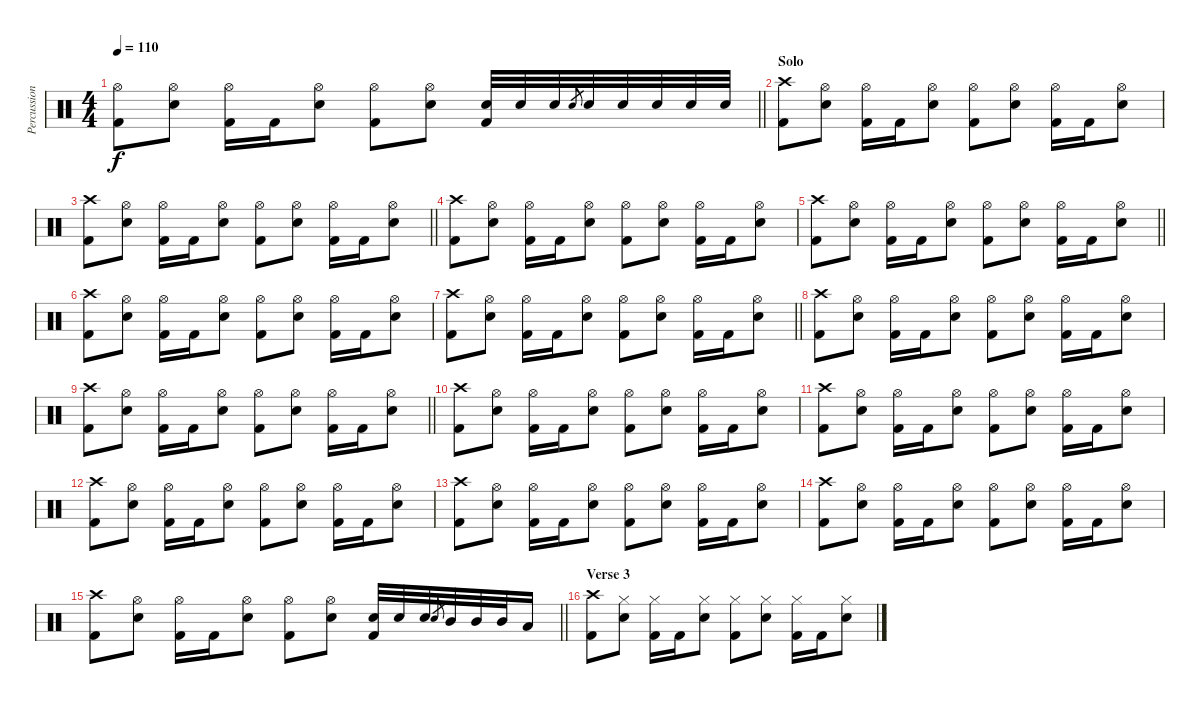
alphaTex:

\track ("Percussion" "Percussion") {instrument percussion}
\staff {score}
\articulation defaults
\ts (4 4)
\tempo 110
\clef neutral
\barLineRight lightlight
\ks c
("Hi-Hat (open)" "Kick (hit) 2").8{dy f} ("Hi-Hat (open)" "Electric Snare (hit)").8 ("Hi-Hat (open)" "Kick (hit) 2").16 "Kick (hit) 2".16 ("Hi-Hat (open)" "Electric Snare (hit)").8 ("Hi-Hat (open)" "Kick (hit) 2").8 ("Hi-Hat (open)" "Electric Snare (hit)").8 ("Electric Snare (hit)" "Kick (hit) 2").32 "Electric Snare (hit)".32 "Electric Snare (hit)".32 "Electric Snare (hit)".8{gr} "Electric Snare (hit)".32 "Electric Snare (hit)".32 "Electric Snare (hit)".32 "Electric Snare (hit)".32 "Electric Snare (hit)".32 |
\section ("" "Solo")
("Crash high (hit)" "Kick (hit) 2").8 ("Hi-Hat (open)" "Electric Snare (hit)").8 ("Hi-Hat (open)" "Kick (hit) 2").16 "Kick (hit) 2".16 ("Hi-Hat (open)" "Electric Snare (hit)").8 ("Hi-Hat (open)" "Kick (hit) 2").8 ("Hi-Hat (open)" "Electric Snare (hit)").8 ("Hi-Hat (open)" "Kick (hit) 2").16 "Kick (hit) 2".16 ("Hi-Hat (open)" "Electric Snare (hit)").8 |
\barLineRight lightlight
("Crash high (hit)" "Kick (hit) 2").8 ("Hi-Hat (open)" "Electric Snare (hit)").8 ("Hi-Hat (open)" "Kick (hit) 2").16 "Kick (hit) 2".16 ("Hi-Hat (open)" "Electric Snare (hit)").8 ("Hi-Hat (open)" "Kick (hit) 2").8 ("Hi-Hat (open)" "Electric Snare (hit)").8 ("Hi-Hat (open)" "Kick (hit) 2").16 "Kick (hit) 2".16 ("Hi-Hat (open)" "Electric Snare (hit)").8 |
("Crash high (hit)" "Kick (hit) 2").8 ("Hi-Hat (open)" "Electric Snare (hit)").8 ("Hi-Hat (open)" "Kick (hit) 2").16 "Kick (hit) 2".16 ("Hi-Hat (open)" "Electric Snare (hit)").8 ("Hi-Hat (open)" "Kick (hit) 2").8 ("Hi-Hat (open)" "Electric Snare (hit)").8 ("Hi-Hat (open)" "Kick (hit) 2").16 "Kick (hit) 2".16 ("Hi-Hat (open)" "Electric Snare (hit)").8 |
\barLineRight lightlight
("Crash high (hit)" "Kick (hit) 2").8 ("Hi-Hat (open)" "Electric Snare (hit)").8 ("Hi-Hat (open)" "Kick (hit) 2").16 "Kick (hit) 2".16 ("Hi-Hat (open)" "Electric Snare (hit)").8 ("Hi-Hat (open)" "Kick (hit) 2").8 ("Hi-Hat (open)" "Electric Snare (hit)").8 ("Hi-Hat (open)" "Kick (hit) 2").16 "Kick (hit) 2".16 ("Hi-Hat (open)" "Electric Snare (hit)").8 |
("Crash high (hit)" "Kick (hit) 2").8 ("Hi-Hat (open)" "Electric Snare (hit)").8 ("Hi-Hat (open)" "Kick (hit) 2").16 "Kick (hit) 2".16 ("Hi-Hat (open)" "Electric Snare (hit)").8 ("Hi-Hat (open)" "Kick (hit) 2").8 ("Hi-Hat (open)" "Electric Snare (hit)").8 ("Hi-Hat (open)" "Kick (hit) 2").16 "Kick (hit) 2".16 ("Hi-Hat (open)" "Electric Snare (hit)").8 |
\barLineRight lightlight
("Crash high (hit)" "Kick (hit) 2").8 ("Hi-Hat (open)" "Electric Snare (hit)").8 ("Hi-Hat (open)" "Kick (hit) 2").16 "Kick (hit) 2".16 ("Hi-Hat (open)" "Electric Snare (hit)").8 ("Hi-Hat (open)" "Kick (hit) 2").8 ("Hi-Hat (open)" "Electric Snare (hit)").8 ("Hi-Hat (open)" "Kick (hit) 2").16 "Kick (hit) 2".16 ("Hi-Hat (open)" "Electric Snare (hit)").8 |
("Crash high (hit)" "Kick (hit) 2").8 ("Hi-Hat (open)" "Electric Snare (hit)").8 ("Hi-Hat (open)" "Kick (hit) 2").16 "Kick (hit) 2".16 ("Hi-Hat (open)" "Electric Snare (hit)").8 ("Hi-Hat (open)" "Kick (hit) 2").8 ("Hi-Hat (open)" "Electric Snare (hit)").8 ("Hi-Hat (open)" "Kick (hit) 2").16 "Kick (hit) 2".16 ("Hi-Hat (open)" "Electric Snare (hit)").8 |
\barLineRight lightlight
("Crash high (hit)" "Kick (hit) 2").8 ("Hi-Hat (open)" "Electric Snare (hit)").8 ("Hi-Hat (open)" "Kick (hit) 2").16 "Kick (hit) 2".16 ("Hi-Hat (open)" "Electric Snare (hit)").8 ("Hi-Hat (open)" "Kick (hit) 2").8 ("Hi-Hat (open)" "Electric Snare (hit)").8 ("Hi-Hat (open)" "Kick (hit) 2").16 "Kick (hit) 2".16 ("Hi-Hat (open)" "Electric Snare (hit)").8 |
("Crash high (hit)" "Kick (hit) 2").8 ("Hi-Hat (open)" "Electric Snare (hit)").8 ("Hi-Hat (open)" "Kick (hit) 2").16 "Kick (hit) 2".16 ("Hi-Hat (open)" "Electric Snare (hit)").8 ("Hi-Hat (open)" "Kick (hit) 2").8 ("Hi-Hat (open)" "Electric Snare (hit)").8 ("Hi-Hat (open)" "Kick (hit) 2").16 "Kick (hit) 2".16 ("Hi-Hat (open)" "Electric Snare (hit)").8 |
("Crash high (hit)" "Kick (hit) 2").8 ("Hi-Hat (open)" "Electric Snare (hit)").8 ("Hi-Hat (open)" "Kick (hit) 2").16 "Kick (hit) 2".16 ("Hi-Hat (open)" "Electric Snare (hit)").8 ("Hi-Hat (open)" "Kick (hit) 2").8 ("Hi-Hat (open)" "Electric Snare (hit)").8 ("Hi-Hat (open)" "Kick (hit) 2").16 "Kick (hit) 2".16 ("Hi-Hat (open)" "Electric Snare (hit)").8 |
("Crash high (hit)" "Kick (hit) 2").8 ("Hi-Hat (open)" "Electric Snare (hit)").8 ("Hi-Hat (open)" "Kick (hit) 2").16 "Kick (hit) 2".16 ("Hi-Hat (open)" "Electric Snare (hit)").8 ("Hi-Hat (open)" "Kick (hit) 2").8 ("Hi-Hat (open)" "Electric Snare (hit)").8 ("Hi-Hat (open)" "Kick (hit) 2").16 "Kick (hit) 2".16 ("Hi-Hat (open)" "Electric Snare (hit)").8 |
("Crash high (hit)" "Kick (hit) 2").8 ("Hi-Hat (open)" "Electric Snare (hit)").8 ("Hi-Hat (open)" "Kick (hit) 2").16 "Kick (hit) 2".16 ("Hi-Hat (open)" "Electric Snare (hit)").8 ("Hi-Hat (open)" "Kick (hit) 2").8 ("Hi-Hat (open)" "Electric Snare (hit)").8 ("Hi-Hat (open)" "Kick (hit) 2").16 "Kick (hit) 2".16 ("Hi-Hat (open)" "Electric Snare (hit)").8 |
("Crash high (hit)" "Kick (hit) 2").8 ("Hi-Hat (open)" "Electric Snare (hit)").8 ("Hi-Hat (open)" "Kick (hit) 2").16 "Kick (hit) 2".16 ("Hi-Hat (open)" "Electric Snare (hit)").8 ("Hi-Hat (open)" "Kick (hit) 2").8 ("Hi-Hat (open)" "Electric Snare (hit)").8 ("Hi-Hat (open)" "Kick (hit) 2").16 "Kick (hit) 2".16 ("Hi-Hat (open)" "Electric Snare (hit)").8 |
\barLineRight lightlight
("Crash high (hit)" "Kick (hit) 2").8 ("Hi-Hat (open)" "Electric Snare (hit)").8 ("Hi-Hat (open)" "Kick (hit) 2").16 "Kick (hit) 2".16 ("Hi-Hat (open)" "Electric Snare (hit)").8 ("Hi-Hat (open)" "Kick (hit) 2").8 ("Hi-Hat (open)" "Electric Snare (hit)").8 ("Electric Snare (hit)" "Kick (hit) 2").32 "Electric Snare (hit)".32 "Electric Snare (hit)".32 "Electric Snare (hit)".8{gr} "Mid Tom (hit)".32 "Mid Tom (hit)".32 "Mid Tom (hit)".32 "Low Tom (hit)".16 |
\section ("" "Verse 3")
("Crash high (hit)" "Kick (hit) 2").8 ("Hi-Hat (closed)" "Electric Snare (hit)").8 ("Hi-Hat (closed)" "Kick (hit) 2").16 "Kick (hit) 2".16 ("Hi-Hat (closed)" "Electric Snare (hit)").8 ("Hi-Hat (closed)" "Kick (hit) 2").8 ("Hi-Hat (closed)" "Electric Snare (hit)").8 ("Hi-Hat (closed)" "Kick (hit) 2").16 "Kick (hit) 2".16 ("Hi-Hat (closed)" "Electric Snare (hit)").8
